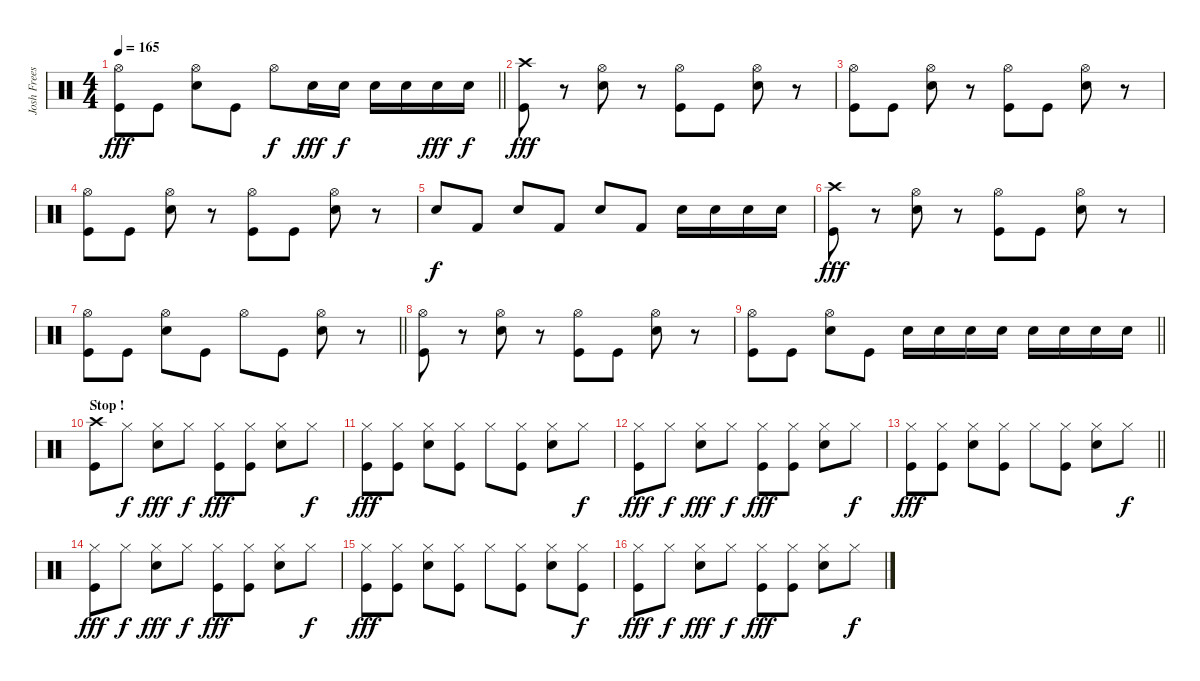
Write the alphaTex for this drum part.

\track ("Josh Freese" "Josh Frees") {instrument percussion}
\staff {score}
\articulation defaults
\ts (4 4)
\tempo 165
\clef neutral
\barLineRight lightlight
\ks c
("Hi-Hat (open)" "Kick (hit)").8{dy fff} "Kick (hit)".8 ("Hi-Hat (open)" "Electric Snare (hit)").8 "Kick (hit)".8 "Hi-Hat (open)".8{dy f} "Electric Snare (hit)".16{dy fff} "Electric Snare (hit)".16{dy f} "Electric Snare (hit)".16 "Electric Snare (hit)".16 "Electric Snare (hit)".16{dy fff} "Electric Snare (hit)".16{dy f} |
("Crash high (hit)" "Kick (hit)").8{dy fff} r.8 ("Hi-Hat (open)" "Electric Snare (hit)").8 r.8 ("Hi-Hat (open)" "Kick (hit)").8 "Kick (hit)".8 ("Hi-Hat (open)" "Electric Snare (hit)").8 r.8 |
("Hi-Hat (open)" "Kick (hit)").8 "Kick (hit)".8 ("Hi-Hat (open)" "Electric Snare (hit)").8 r.8 ("Hi-Hat (open)" "Kick (hit)").8 "Kick (hit)".8 ("Hi-Hat (open)" "Electric Snare (hit)").8 r.8 |
("Hi-Hat (open)" "Kick (hit)").8 "Kick (hit)".8 ("Hi-Hat (open)" "Electric Snare (hit)").8 r.8 ("Hi-Hat (open)" "Kick (hit)").8 "Kick (hit)".8 ("Hi-Hat (open)" "Electric Snare (hit)").8 r.8 |
"Electric Snare (hit)".8{dy f} "Kick (hit) 2".8 "Electric Snare (hit)".8 "Kick (hit) 2".8 "Electric Snare (hit)".8 "Kick (hit) 2".8 "Electric Snare (hit)".16 "Electric Snare (hit)".16 "Electric Snare (hit)".16 "Electric Snare (hit)".16 |
("Crash high (hit)" "Kick (hit)").8{dy fff} r.8 ("Hi-Hat (open)" "Electric Snare (hit)").8 r.8 ("Hi-Hat (open)" "Kick (hit)").8 "Kick (hit)".8 ("Hi-Hat (open)" "Electric Snare (hit)").8 r.8 |
\barLineRight lightlight
("Hi-Hat (open)" "Kick (hit)").8 "Kick (hit)".8 ("Hi-Hat (open)" "Electric Snare (hit)").8 "Kick (hit)".8 "Hi-Hat (open)".8 "Kick (hit)".8 ("Hi-Hat (open)" "Electric Snare (hit)").8 r.8 |
("Hi-Hat (open)" "Kick (hit)").8 r.8 ("Hi-Hat (open)" "Electric Snare (hit)").8 r.8 ("Hi-Hat (open)" "Kick (hit)").8 "Kick (hit)".8 ("Hi-Hat (open)" "Electric Snare (hit)").8 r.8 |
\barLineRight lightlight
("Hi-Hat (open)" "Kick (hit)").8 "Kick (hit)".8 ("Hi-Hat (open)" "Electric Snare (hit)").8 "Kick (hit)".8 "Electric Snare (hit)".16 "Electric Snare (hit)".16 "Electric Snare (hit)".16 "Electric Snare (hit)".16 "Electric Snare (hit)".16 "Electric Snare (hit)".16 "Electric Snare (hit)".16 "Electric Snare (hit)".16 |
\section ("" "Stop !")
("Crash high (hit)" "Kick (hit)").8 "Hi-Hat (closed)".8{dy f} ("Hi-Hat (closed)" "Electric Snare (hit)").8{dy fff} "Hi-Hat (closed)".8{dy f} ("Hi-Hat (closed)" "Kick (hit)").8{dy fff} ("Hi-Hat (closed)" "Kick (hit)").8 ("Hi-Hat (closed)" "Electric Snare (hit)").8 "Hi-Hat (closed)".8{dy f} |
("Hi-Hat (closed)" "Kick (hit)").8{dy fff} ("Hi-Hat (closed)" "Kick (hit)").8 ("Hi-Hat (closed)" "Electric Snare (hit)").8 ("Hi-Hat (closed)" "Kick (hit)").8 "Hi-Hat (closed)".8 ("Hi-Hat (closed)" "Kick (hit)").8 ("Hi-Hat (closed)" "Electric Snare (hit)").8 "Hi-Hat (closed)".8{dy f} |
("Hi-Hat (closed)" "Kick (hit)").8{dy fff} "Hi-Hat (closed)".8{dy f} ("Hi-Hat (closed)" "Electric Snare (hit)").8{dy fff} "Hi-Hat (closed)".8{dy f} ("Hi-Hat (closed)" "Kick (hit)").8{dy fff} ("Hi-Hat (closed)" "Kick (hit)").8 ("Hi-Hat (closed)" "Electric Snare (hit)").8 "Hi-Hat (closed)".8{dy f} |
\barLineRight lightlight
("Hi-Hat (closed)" "Kick (hit)").8{dy fff} ("Hi-Hat (closed)" "Kick (hit)").8 ("Hi-Hat (closed)" "Electric Snare (hit)").8 ("Hi-Hat (closed)" "Kick (hit)").8 "Hi-Hat (closed)".8 ("Hi-Hat (closed)" "Kick (hit)").8 ("Hi-Hat (closed)" "Electric Snare (hit)").8 "Hi-Hat (closed)".8{dy f} |
("Hi-Hat (closed)" "Kick (hit)").8{dy fff} "Hi-Hat (closed)".8{dy f} ("Hi-Hat (closed)" "Electric Snare (hit)").8{dy fff} "Hi-Hat (closed)".8{dy f} ("Hi-Hat (closed)" "Kick (hit)").8{dy fff} ("Hi-Hat (closed)" "Kick (hit)").8 ("Hi-Hat (closed)" "Electric Snare (hit)").8 "Hi-Hat (closed)".8{dy f} |
("Hi-Hat (closed)" "Kick (hit)").8{dy fff} ("Hi-Hat (closed)" "Kick (hit)").8 ("Hi-Hat (closed)" "Electric Snare (hit)").8 ("Hi-Hat (closed)" "Kick (hit)").8 "Hi-Hat (closed)".8 ("Hi-Hat (closed)" "Kick (hit)").8 ("Hi-Hat (closed)" "Electric Snare (hit)").8 ("Hi-Hat (closed)" "Kick (hit)").8{dy f} |
("Hi-Hat (closed)" "Kick (hit)").8{dy fff} "Hi-Hat (closed)".8{dy f} ("Hi-Hat (closed)" "Electric Snare (hit)").8{dy fff} "Hi-Hat (closed)".8{dy f} ("Hi-Hat (closed)" "Kick (hit)").8{dy fff} ("Hi-Hat (closed)" "Kick (hit)").8 ("Hi-Hat (closed)" "Electric Snare (hit)").8 "Hi-Hat (closed)".8{dy f}
